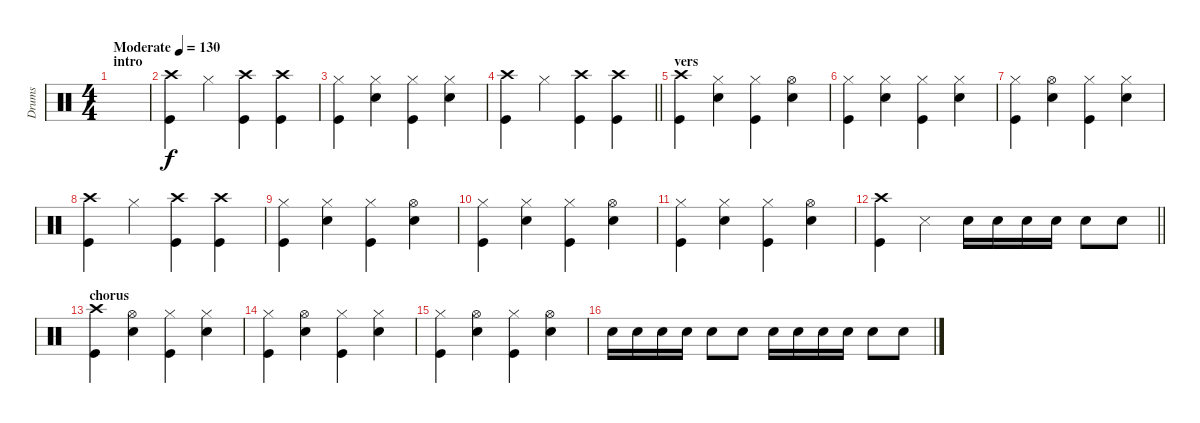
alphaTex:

\track ("Drums" "Drums") {instrument percussion}
\staff {score}
\articulation defaults
\ts (4 4)
\section ("" "intro")
\tempo (130 "Moderate")
\clef neutral
\ks c
|
("Crash high (hit)" "Kick (hit)").4 "Hi-Hat (closed)".4 ("Crash high (hit)" "Kick (hit)").4 ("Crash high (hit)" "Kick (hit)").4 |
("Hi-Hat (closed)" "Kick (hit)").4 ("Hi-Hat (closed)" "Snare (hit) 2").4 ("Hi-Hat (closed)" "Kick (hit)").4 ("Hi-Hat (closed)" "Snare (hit) 2").4 |
\barLineRight lightlight
("Crash high (hit)" "Kick (hit)").4 "Hi-Hat (closed)".4 ("Crash high (hit)" "Kick (hit)").4 ("Crash high (hit)" "Kick (hit)").4 |
\section ("" "vers")
("Crash high (hit)" "Kick (hit)").4 ("Hi-Hat (closed)" "Snare (hit) 2").4 ("Hi-Hat (closed)" "Kick (hit)").4 ("Hi-Hat (open)" "Snare (hit) 2").4 |
("Kick (hit)" "Hi-Hat (closed)").4 ("Snare (hit) 2" "Hi-Hat (closed)").4 ("Kick (hit)" "Hi-Hat (closed)").4 ("Snare (hit) 2" "Hi-Hat (closed)").4 |
("Kick (hit)" "Hi-Hat (closed)").4 ("Snare (hit) 2" "Hi-Hat (open)").4 ("Kick (hit)" "Hi-Hat (closed)").4 ("Hi-Hat (closed)" "Snare (hit) 2").4 |
("Crash high (hit)" "Kick (hit)").4 "Hi-Hat (closed)".4 ("Crash high (hit)" "Kick (hit)").4 ("Crash high (hit)" "Kick (hit)").4 |
("Kick (hit)" "Hi-Hat (closed)").4 ("Hi-Hat (closed)" "Snare (hit) 2").4 ("Hi-Hat (closed)" "Kick (hit)").4 ("Hi-Hat (open)" "Snare (hit) 2").4 |
("Kick (hit)" "Hi-Hat (closed)").4 ("Hi-Hat (closed)" "Snare (hit) 2").4 ("Hi-Hat (closed)" "Kick (hit)").4 ("Hi-Hat (open)" "Snare (hit) 2").4 |
("Kick (hit)" "Hi-Hat (closed)").4 ("Hi-Hat (closed)" "Snare (hit) 2").4 ("Hi-Hat (closed)" "Kick (hit)").4 ("Hi-Hat (open)" "Snare (hit) 2").4 |
\barLineRight lightlight
("Crash high (hit)" "Kick (hit)").4 "Snare (side stick) 3".4 "Snare (hit) 2".16 "Snare (hit) 2".16 "Snare (hit) 2".16 "Snare (hit) 2".16 "Snare (hit) 2".8 "Snare (hit) 2".8 |
\section ("" "chorus")
("Crash high (hit)" "Kick (hit)").4 ("Hi-Hat (open)" "Snare (hit) 2").4 ("Hi-Hat (closed)" "Kick (hit)").4 ("Snare (hit) 2" "Hi-Hat (closed)").4 |
("Kick (hit)" "Hi-Hat (closed)").4 ("Snare (hit) 2" "Hi-Hat (open)").4 ("Kick (hit)" "Hi-Hat (closed)").4 ("Hi-Hat (closed)" "Snare (hit) 2").4 |
("Kick (hit)" "Hi-Hat (closed)").4 ("Snare (hit) 2" "Hi-Hat (open)").4 ("Kick (hit)" "Hi-Hat (closed)").4 ("Hi-Hat (open)" "Snare (hit) 2").4 |
"Snare (hit) 2".16 "Snare (hit) 2".16 "Snare (hit) 2".16 "Snare (hit) 2".16 "Snare (hit) 2".8 "Snare (hit) 2".8 "Snare (hit) 2".16 "Snare (hit) 2".16 "Snare (hit) 2".16 "Snare (hit) 2".16 "Snare (hit) 2".8 "Snare (hit) 2".8
